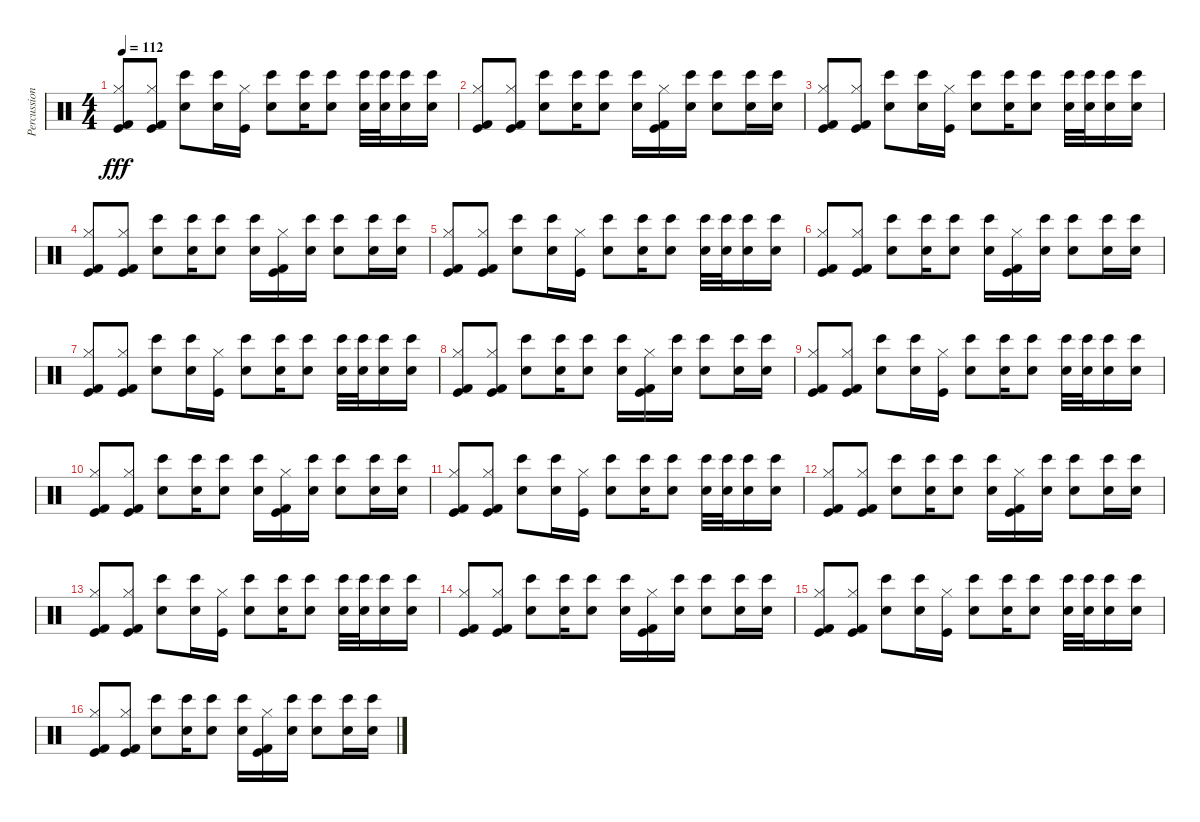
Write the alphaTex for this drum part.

\track ("Percussion" "Percussion") {instrument percussion}
\staff {score}
\articulation defaults
\ts (4 4)
\tempo 112
\clef neutral
\ks c
("Kick (hit)" "Hi-Hat (closed)" "Kick (hit) 2").8{dy fff} ("Hi-Hat (closed)" "Kick (hit)" "Kick (hit) 2").8 ("Bongo High (hit)" "Snare (hit) 2").8 ("Bongo High (hit)" "Snare (hit) 2").16 ("Hi-Hat (closed)" "Kick (hit)").16 ("Snare (hit) 2" "Bongo High (hit)").8 ("Bongo High (hit)" "Snare (hit) 2").16 ("Bongo High (hit)" "Snare (hit) 2").8 ("Bongo High (hit)" "Snare (hit) 2").32 ("Bongo High (hit)" "Snare (hit) 2").32 ("Bongo High (hit)" "Snare (hit) 2").16 ("Bongo High (hit)" "Snare (hit) 2").16 |
("Kick (hit)" "Hi-Hat (closed)" "Kick (hit) 2").8 ("Hi-Hat (closed)" "Kick (hit)" "Kick (hit) 2").8 ("Bongo High (hit)" "Snare (hit) 2").8 ("Bongo High (hit)" "Snare (hit) 2").16 ("Bongo High (hit)" "Snare (hit) 2").8 ("Snare (hit) 2" "Bongo High (hit)").16 ("Hi-Hat (closed)" "Kick (hit) 2" "Kick (hit)").16 ("Bongo High (hit)" "Snare (hit) 2").16 ("Bongo High (hit)" "Snare (hit) 2").8 ("Bongo High (hit)" "Snare (hit) 2").16 ("Bongo High (hit)" "Snare (hit) 2").16 |
("Kick (hit)" "Hi-Hat (closed)" "Kick (hit) 2").8 ("Hi-Hat (closed)" "Kick (hit)" "Kick (hit) 2").8 ("Bongo High (hit)" "Snare (hit) 2").8 ("Bongo High (hit)" "Snare (hit) 2").16 ("Hi-Hat (closed)" "Kick (hit)").16 ("Snare (hit) 2" "Bongo High (hit)").8 ("Bongo High (hit)" "Snare (hit) 2").16 ("Bongo High (hit)" "Snare (hit) 2").8 ("Bongo High (hit)" "Snare (hit) 2").32 ("Bongo High (hit)" "Snare (hit) 2").32 ("Bongo High (hit)" "Snare (hit) 2").16 ("Bongo High (hit)" "Snare (hit) 2").16 |
("Kick (hit)" "Hi-Hat (closed)" "Kick (hit) 2").8 ("Hi-Hat (closed)" "Kick (hit)" "Kick (hit) 2").8 ("Bongo High (hit)" "Snare (hit) 2").8 ("Bongo High (hit)" "Snare (hit) 2").16 ("Bongo High (hit)" "Snare (hit) 2").8 ("Snare (hit) 2" "Bongo High (hit)").16 ("Hi-Hat (closed)" "Kick (hit) 2" "Kick (hit)").16 ("Bongo High (hit)" "Snare (hit) 2").16 ("Bongo High (hit)" "Snare (hit) 2").8 ("Bongo High (hit)" "Snare (hit) 2").16 ("Bongo High (hit)" "Snare (hit) 2").16 |
("Kick (hit)" "Hi-Hat (closed)" "Kick (hit) 2").8 ("Hi-Hat (closed)" "Kick (hit)" "Kick (hit) 2").8 ("Bongo High (hit)" "Snare (hit) 2").8 ("Bongo High (hit)" "Snare (hit) 2").16 ("Hi-Hat (closed)" "Kick (hit)").16 ("Snare (hit) 2" "Bongo High (hit)").8 ("Bongo High (hit)" "Snare (hit) 2").16 ("Bongo High (hit)" "Snare (hit) 2").8 ("Bongo High (hit)" "Snare (hit) 2").32 ("Bongo High (hit)" "Snare (hit) 2").32 ("Bongo High (hit)" "Snare (hit) 2").16 ("Bongo High (hit)" "Snare (hit) 2").16 |
("Kick (hit)" "Hi-Hat (closed)" "Kick (hit) 2").8 ("Hi-Hat (closed)" "Kick (hit)" "Kick (hit) 2").8 ("Bongo High (hit)" "Snare (hit) 2").8 ("Bongo High (hit)" "Snare (hit) 2").16 ("Bongo High (hit)" "Snare (hit) 2").8 ("Snare (hit) 2" "Bongo High (hit)").16 ("Hi-Hat (closed)" "Kick (hit) 2" "Kick (hit)").16 ("Bongo High (hit)" "Snare (hit) 2").16 ("Bongo High (hit)" "Snare (hit) 2").8 ("Bongo High (hit)" "Snare (hit) 2").16 ("Bongo High (hit)" "Snare (hit) 2").16 |
("Kick (hit)" "Hi-Hat (closed)" "Kick (hit) 2").8 ("Hi-Hat (closed)" "Kick (hit)" "Kick (hit) 2").8 ("Bongo High (hit)" "Snare (hit) 2").8 ("Bongo High (hit)" "Snare (hit) 2").16 ("Hi-Hat (closed)" "Kick (hit)").16 ("Snare (hit) 2" "Bongo High (hit)").8 ("Bongo High (hit)" "Snare (hit) 2").16 ("Bongo High (hit)" "Snare (hit) 2").8 ("Bongo High (hit)" "Snare (hit) 2").32 ("Bongo High (hit)" "Snare (hit) 2").32 ("Bongo High (hit)" "Snare (hit) 2").16 ("Bongo High (hit)" "Snare (hit) 2").16 |
("Kick (hit)" "Hi-Hat (closed)" "Kick (hit) 2").8 ("Hi-Hat (closed)" "Kick (hit)" "Kick (hit) 2").8 ("Bongo High (hit)" "Snare (hit) 2").8 ("Bongo High (hit)" "Snare (hit) 2").16 ("Bongo High (hit)" "Snare (hit) 2").8 ("Snare (hit) 2" "Bongo High (hit)").16 ("Hi-Hat (closed)" "Kick (hit) 2" "Kick (hit)").16 ("Bongo High (hit)" "Snare (hit) 2").16 ("Bongo High (hit)" "Snare (hit) 2").8 ("Bongo High (hit)" "Snare (hit) 2").16 ("Bongo High (hit)" "Snare (hit) 2").16 |
("Kick (hit)" "Hi-Hat (closed)" "Kick (hit) 2").8 ("Hi-Hat (closed)" "Kick (hit)" "Kick (hit) 2").8 ("Bongo High (hit)" "Snare (hit) 2").8 ("Bongo High (hit)" "Snare (hit) 2").16 ("Hi-Hat (closed)" "Kick (hit)").16 ("Snare (hit) 2" "Bongo High (hit)").8 ("Bongo High (hit)" "Snare (hit) 2").16 ("Bongo High (hit)" "Snare (hit) 2").8 ("Bongo High (hit)" "Snare (hit) 2").32 ("Bongo High (hit)" "Snare (hit) 2").32 ("Bongo High (hit)" "Snare (hit) 2").16 ("Bongo High (hit)" "Snare (hit) 2").16 |
("Kick (hit)" "Hi-Hat (closed)" "Kick (hit) 2").8 ("Hi-Hat (closed)" "Kick (hit)" "Kick (hit) 2").8 ("Bongo High (hit)" "Snare (hit) 2").8 ("Bongo High (hit)" "Snare (hit) 2").16 ("Bongo High (hit)" "Snare (hit) 2").8 ("Snare (hit) 2" "Bongo High (hit)").16 ("Hi-Hat (closed)" "Kick (hit) 2" "Kick (hit)").16 ("Bongo High (hit)" "Snare (hit) 2").16 ("Bongo High (hit)" "Snare (hit) 2").8 ("Bongo High (hit)" "Snare (hit) 2").16 ("Bongo High (hit)" "Snare (hit) 2").16 |
("Kick (hit)" "Hi-Hat (closed)" "Kick (hit) 2").8 ("Hi-Hat (closed)" "Kick (hit)" "Kick (hit) 2").8 ("Bongo High (hit)" "Snare (hit) 2").8 ("Bongo High (hit)" "Snare (hit) 2").16 ("Hi-Hat (closed)" "Kick (hit)").16 ("Snare (hit) 2" "Bongo High (hit)").8 ("Bongo High (hit)" "Snare (hit) 2").16 ("Bongo High (hit)" "Snare (hit) 2").8 ("Bongo High (hit)" "Snare (hit) 2").32 ("Bongo High (hit)" "Snare (hit) 2").32 ("Bongo High (hit)" "Snare (hit) 2").16 ("Bongo High (hit)" "Snare (hit) 2").16 |
("Kick (hit)" "Hi-Hat (closed)" "Kick (hit) 2").8 ("Hi-Hat (closed)" "Kick (hit)" "Kick (hit) 2").8 ("Bongo High (hit)" "Snare (hit) 2").8 ("Bongo High (hit)" "Snare (hit) 2").16 ("Bongo High (hit)" "Snare (hit) 2").8 ("Snare (hit) 2" "Bongo High (hit)").16 ("Hi-Hat (closed)" "Kick (hit) 2" "Kick (hit)").16 ("Bongo High (hit)" "Snare (hit) 2").16 ("Bongo High (hit)" "Snare (hit) 2").8 ("Bongo High (hit)" "Snare (hit) 2").16 ("Bongo High (hit)" "Snare (hit) 2").16 |
("Kick (hit)" "Hi-Hat (closed)" "Kick (hit) 2").8 ("Hi-Hat (closed)" "Kick (hit)" "Kick (hit) 2").8 ("Bongo High (hit)" "Snare (hit) 2").8 ("Bongo High (hit)" "Snare (hit) 2").16 ("Hi-Hat (closed)" "Kick (hit)").16 ("Snare (hit) 2" "Bongo High (hit)").8 ("Bongo High (hit)" "Snare (hit) 2").16 ("Bongo High (hit)" "Snare (hit) 2").8 ("Bongo High (hit)" "Snare (hit) 2").32 ("Bongo High (hit)" "Snare (hit) 2").32 ("Bongo High (hit)" "Snare (hit) 2").16 ("Bongo High (hit)" "Snare (hit) 2").16 |
("Kick (hit)" "Hi-Hat (closed)" "Kick (hit) 2").8 ("Hi-Hat (closed)" "Kick (hit)" "Kick (hit) 2").8 ("Bongo High (hit)" "Snare (hit) 2").8 ("Bongo High (hit)" "Snare (hit) 2").16 ("Bongo High (hit)" "Snare (hit) 2").8 ("Snare (hit) 2" "Bongo High (hit)").16 ("Hi-Hat (closed)" "Kick (hit) 2" "Kick (hit)").16 ("Bongo High (hit)" "Snare (hit) 2").16 ("Bongo High (hit)" "Snare (hit) 2").8 ("Bongo High (hit)" "Snare (hit) 2").16 ("Bongo High (hit)" "Snare (hit) 2").16 |
("Kick (hit)" "Hi-Hat (closed)" "Kick (hit) 2").8 ("Hi-Hat (closed)" "Kick (hit)" "Kick (hit) 2").8 ("Bongo High (hit)" "Snare (hit) 2").8 ("Bongo High (hit)" "Snare (hit) 2").16 ("Hi-Hat (closed)" "Kick (hit)").16 ("Snare (hit) 2" "Bongo High (hit)").8 ("Bongo High (hit)" "Snare (hit) 2").16 ("Bongo High (hit)" "Snare (hit) 2").8 ("Bongo High (hit)" "Snare (hit) 2").32 ("Bongo High (hit)" "Snare (hit) 2").32 ("Bongo High (hit)" "Snare (hit) 2").16 ("Bongo High (hit)" "Snare (hit) 2").16 |
("Kick (hit)" "Hi-Hat (closed)" "Kick (hit) 2").8 ("Hi-Hat (closed)" "Kick (hit)" "Kick (hit) 2").8 ("Bongo High (hit)" "Snare (hit) 2").8 ("Bongo High (hit)" "Snare (hit) 2").16 ("Bongo High (hit)" "Snare (hit) 2").8 ("Snare (hit) 2" "Bongo High (hit)").16 ("Hi-Hat (closed)" "Kick (hit) 2" "Kick (hit)").16 ("Bongo High (hit)" "Snare (hit) 2").16 ("Bongo High (hit)" "Snare (hit) 2").8 ("Bongo High (hit)" "Snare (hit) 2").16 ("Bongo High (hit)" "Snare (hit) 2").16
